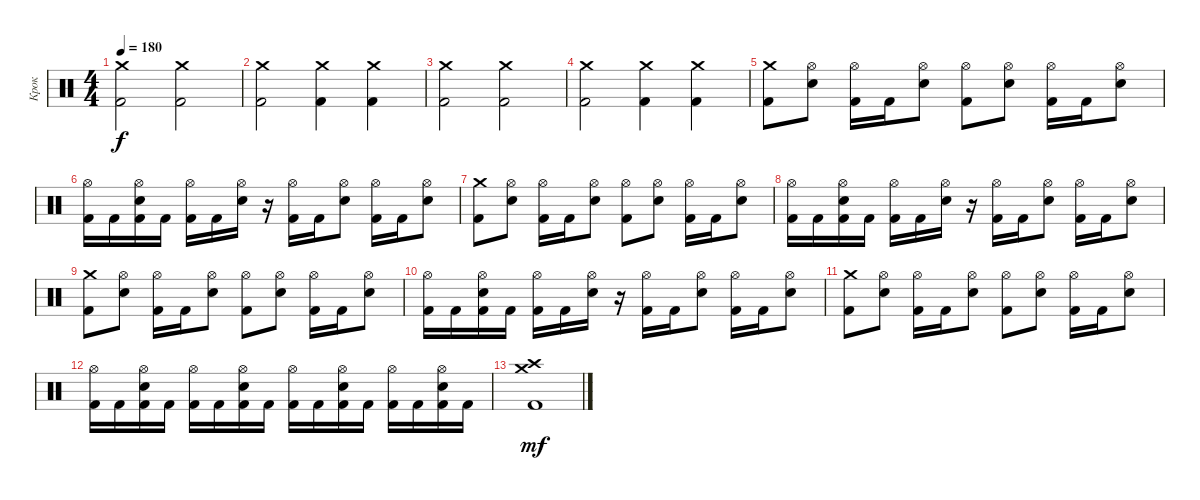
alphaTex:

\track ("Крок" "Крок") {instrument percussion}
\staff {score}
\articulation defaults
\ts (4 4)
\tempo 180
\clef neutral
\ks c
("Kick (hit) 2" "Crash medium (hit)").2{dy f} ("Kick (hit) 2" "Crash medium (hit)").2 |
("Crash medium (hit)" "Kick (hit) 2").2 ("Kick (hit) 2" "Crash medium (hit)").4 ("Kick (hit) 2" "Crash medium (hit)").4 |
("Kick (hit) 2" "Crash medium (hit)").2 ("Kick (hit) 2" "Crash medium (hit)").2 |
("Crash medium (hit)" "Kick (hit) 2").2 ("Kick (hit) 2" "Crash medium (hit)").4 ("Kick (hit) 2" "Crash medium (hit)").4 |
("Kick (hit) 2" "Crash medium (hit)").8 ("Electric Snare (hit)" "Hi-Hat (open)").8 ("Kick (hit) 2" "Hi-Hat (open)").16 "Kick (hit) 2".16 ("Electric Snare (hit)" "Hi-Hat (open)").8 ("Kick (hit) 2" "Hi-Hat (open)").8 ("Electric Snare (hit)" "Hi-Hat (open)").8 ("Kick (hit) 2" "Hi-Hat (open)").16 "Kick (hit) 2".16 ("Electric Snare (hit)" "Hi-Hat (open)").8 |
("Kick (hit) 2" "Hi-Hat (open)").16 "Kick (hit) 2".16 ("Kick (hit) 2" "Electric Snare (hit)" "Hi-Hat (open)").16 "Kick (hit) 2".16 ("Kick (hit) 2" "Hi-Hat (open)").16 "Kick (hit) 2".16 ("Electric Snare (hit)" "Hi-Hat (open)").16 r.16 ("Kick (hit) 2" "Hi-Hat (open)").16 "Kick (hit) 2".16 ("Electric Snare (hit)" "Hi-Hat (open)").8 ("Kick (hit) 2" "Hi-Hat (open)").16 "Kick (hit) 2".16 ("Electric Snare (hit)" "Hi-Hat (open)").8 |
("Kick (hit) 2" "Crash medium (hit)").8 ("Electric Snare (hit)" "Hi-Hat (open)").8 ("Kick (hit) 2" "Hi-Hat (open)").16 "Kick (hit) 2".16 ("Electric Snare (hit)" "Hi-Hat (open)").8 ("Kick (hit) 2" "Hi-Hat (open)").8 ("Electric Snare (hit)" "Hi-Hat (open)").8 ("Kick (hit) 2" "Hi-Hat (open)").16 "Kick (hit) 2".16 ("Electric Snare (hit)" "Hi-Hat (open)").8 |
("Kick (hit) 2" "Hi-Hat (open)").16 "Kick (hit) 2".16 ("Kick (hit) 2" "Electric Snare (hit)" "Hi-Hat (open)").16 "Kick (hit) 2".16 ("Kick (hit) 2" "Hi-Hat (open)").16 "Kick (hit) 2".16 ("Electric Snare (hit)" "Hi-Hat (open)").16 r.16 ("Kick (hit) 2" "Hi-Hat (open)").16 "Kick (hit) 2".16 ("Electric Snare (hit)" "Hi-Hat (open)").8 ("Kick (hit) 2" "Hi-Hat (open)").16 "Kick (hit) 2".16 ("Electric Snare (hit)" "Hi-Hat (open)").8 |
("Kick (hit) 2" "Crash medium (hit)").8 ("Electric Snare (hit)" "Hi-Hat (open)").8 ("Kick (hit) 2" "Hi-Hat (open)").16 "Kick (hit) 2".16 ("Electric Snare (hit)" "Hi-Hat (open)").8 ("Kick (hit) 2" "Hi-Hat (open)").8 ("Electric Snare (hit)" "Hi-Hat (open)").8 ("Kick (hit) 2" "Hi-Hat (open)").16 "Kick (hit) 2".16 ("Electric Snare (hit)" "Hi-Hat (open)").8 |
("Kick (hit) 2" "Hi-Hat (open)").16 "Kick (hit) 2".16 ("Kick (hit) 2" "Electric Snare (hit)" "Hi-Hat (open)").16 "Kick (hit) 2".16 ("Kick (hit) 2" "Hi-Hat (open)").16 "Kick (hit) 2".16 ("Electric Snare (hit)" "Hi-Hat (open)").16 r.16 ("Kick (hit) 2" "Hi-Hat (open)").16 "Kick (hit) 2".16 ("Electric Snare (hit)" "Hi-Hat (open)").8 ("Kick (hit) 2" "Hi-Hat (open)").16 "Kick (hit) 2".16 ("Electric Snare (hit)" "Hi-Hat (open)").8 |
("Kick (hit) 2" "Crash medium (hit)").8 ("Electric Snare (hit)" "Hi-Hat (open)").8 ("Kick (hit) 2" "Hi-Hat (open)").16 "Kick (hit) 2".16 ("Electric Snare (hit)" "Hi-Hat (open)").8 ("Kick (hit) 2" "Hi-Hat (open)").8 ("Electric Snare (hit)" "Hi-Hat (open)").8 ("Kick (hit) 2" "Hi-Hat (open)").16 "Kick (hit) 2".16 ("Electric Snare (hit)" "Hi-Hat (open)").8 |
("Kick (hit) 2" "Hi-Hat (open)").16 "Kick (hit) 2".16 ("Kick (hit) 2" "Electric Snare (hit)" "Hi-Hat (open)").16 "Kick (hit) 2".16 ("Kick (hit) 2" "Hi-Hat (open)").16 "Kick (hit) 2".16 ("Kick (hit) 2" "Electric Snare (hit)" "Hi-Hat (open)").16 "Kick (hit) 2".16 ("Kick (hit) 2" "Hi-Hat (open)").16 "Kick (hit) 2".16 ("Kick (hit) 2" "Electric Snare (hit)" "Hi-Hat (open)").16 "Kick (hit) 2".16 ("Kick (hit) 2" "Hi-Hat (open)").16 "Kick (hit) 2".16 ("Kick (hit) 2" "Electric Snare (hit)" "Hi-Hat (open)").16 "Kick (hit) 2".16 |
("Kick (hit) 2" "Crash high (hit)" "Crash medium (hit)").1{dy mf}
